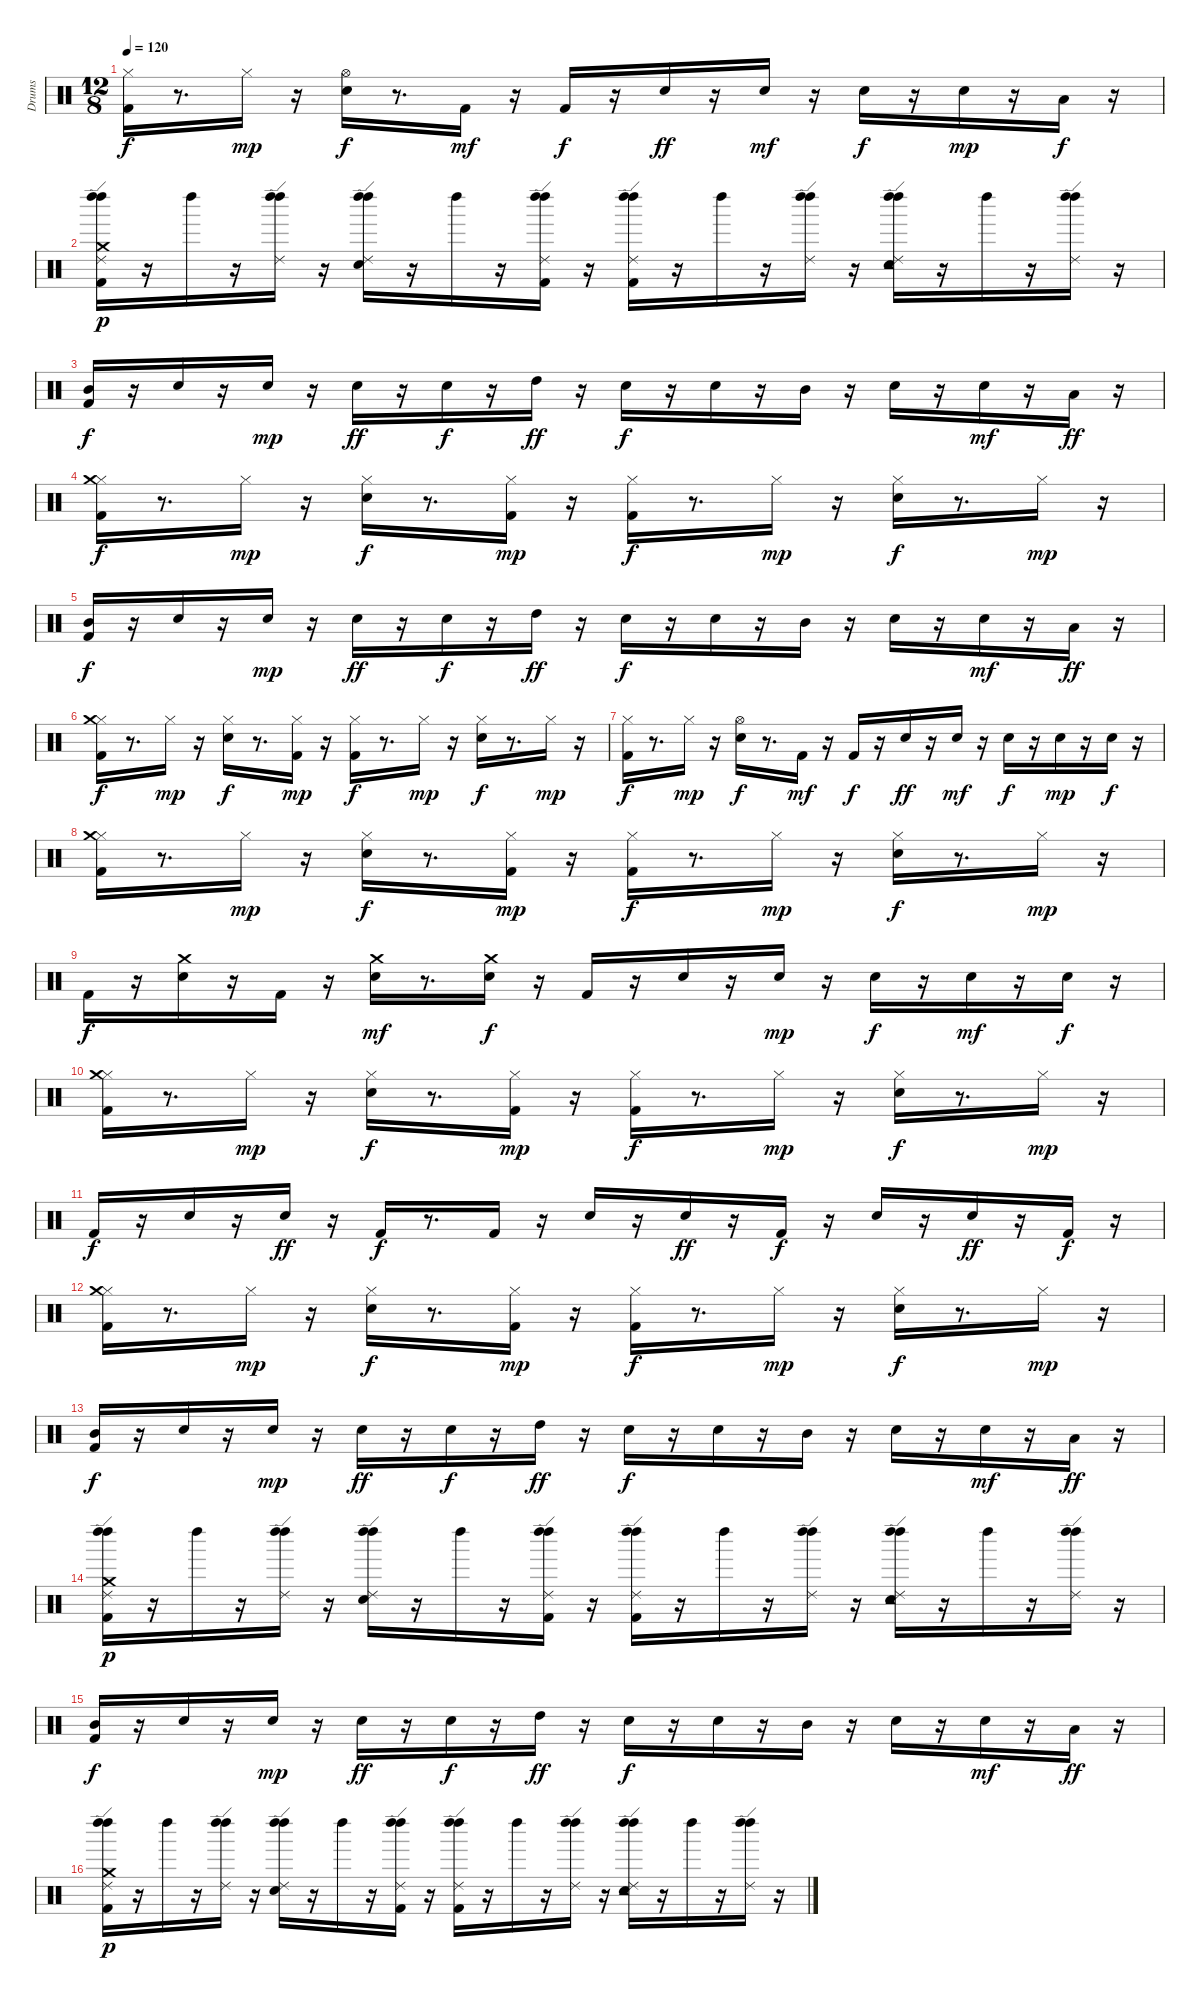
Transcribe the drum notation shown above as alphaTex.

\track ("Drums" "Drums") {instrument percussion}
\staff {score}
\articulation defaults
\ts (12 8)
\tempo 120
\clef neutral
\ks c
("Kick (hit) 2" "Hi-Hat (closed)").16{dy f} r.8{d} "Hi-Hat (closed)".16{dy mp} r.16 ("Snare (hit) 2" "Hi-Hat (open)").16{dy f} r.8{d} "Kick (hit) 2".16{dy mf} r.16 "Kick (hit) 2".16{dy f} r.16 "Snare (hit) 2".16{dy ff} r.16 "Snare (hit) 2".16{dy mf} r.16 "Snare (hit) 2".16{dy f} r.16 "Snare (hit) 2".16{dy mp} r.16 "Low Floor Tom (hit)".16{dy f} r.16 |
("Kick (hit) 2" "Ride (edge) 2" "Crash medium (hit)" "Left Maraca (hit)" "Left Maraca (hit)").16{dy p} r.16 "Left Maraca (hit)".16 r.16 ("Ride (edge) 2" "Left Maraca (hit)" "Left Maraca (hit)").16 r.16 ("Snare (hit) 2" "Ride (edge) 2" "Left Maraca (hit)" "Left Maraca (hit)").16 r.16 "Left Maraca (hit)".16 r.16 ("Kick (hit) 2" "Ride (edge) 2" "Left Maraca (hit)" "Left Maraca (hit)").16 r.16 ("Kick (hit) 2" "Ride (edge) 2" "Left Maraca (hit)" "Left Maraca (hit)").16 r.16 "Left Maraca (hit)".16 r.16 ("Ride (edge) 2" "Left Maraca (hit)" "Left Maraca (hit)").16 r.16 ("Snare (hit) 2" "Ride (edge) 2" "Tambourine (hit)" "Left Maraca (hit)" "Left Maraca (hit)").16 r.16 "Left Maraca (hit)".16 r.16 ("Ride (edge) 2" "Left Maraca (hit)" "Left Maraca (hit)").16 r.16 |
("Kick (hit) 2" "Mid Tom (hit)").16{dy f} r.16 "Snare (hit) 2".16 r.16 "Snare (hit) 2".16{dy mp} r.16 "Snare (hit) 2".16{dy ff} r.16 "Snare (hit) 2".16{dy f} r.16 "High Tom (hit)".16{dy ff} r.16 "Snare (hit) 2".16{dy f} r.16 "Snare (hit) 2".16 r.16 "Mid Tom (hit)".16 r.16 "Snare (hit) 2".16 r.16 "Snare (hit) 2".16{dy mf} r.16 "Low Floor Tom (hit)".16{dy ff} r.16 |
("Kick (hit) 2" "Hi-Hat (closed)" "Crash medium (hit)").16{dy f} r.8{d} "Hi-Hat (closed)".16{dy mp} r.16 ("Snare (hit) 2" "Hi-Hat (closed)").16{dy f} r.8{d} ("Kick (hit) 2" "Hi-Hat (closed)").16{dy mp} r.16 ("Kick (hit) 2" "Hi-Hat (closed)").16{dy f} r.8{d} "Hi-Hat (closed)".16{dy mp} r.16 ("Snare (hit) 2" "Hi-Hat (closed)").16{dy f} r.8{d} "Hi-Hat (closed)".16{dy mp} r.16 |
("Kick (hit) 2" "Mid Tom (hit)").16{dy f} r.16 "Snare (hit) 2".16 r.16 "Snare (hit) 2".16{dy mp} r.16 "Snare (hit) 2".16{dy ff} r.16 "Snare (hit) 2".16{dy f} r.16 "High Tom (hit)".16{dy ff} r.16 "Snare (hit) 2".16{dy f} r.16 "Snare (hit) 2".16 r.16 "Mid Tom (hit)".16 r.16 "Snare (hit) 2".16 r.16 "Snare (hit) 2".16{dy mf} r.16 "Low Floor Tom (hit)".16{dy ff} r.16 |
("Kick (hit) 2" "Hi-Hat (closed)" "Crash medium (hit)").16{dy f} r.8{d} "Hi-Hat (closed)".16{dy mp} r.16 ("Snare (hit) 2" "Hi-Hat (closed)").16{dy f} r.8{d} ("Kick (hit) 2" "Hi-Hat (closed)").16{dy mp} r.16 ("Kick (hit) 2" "Hi-Hat (closed)").16{dy f} r.8{d} "Hi-Hat (closed)".16{dy mp} r.16 ("Snare (hit) 2" "Hi-Hat (closed)").16{dy f} r.8{d} "Hi-Hat (closed)".16{dy mp} r.16 |
("Kick (hit) 2" "Hi-Hat (closed)").16{dy f} r.8{d} "Hi-Hat (closed)".16{dy mp} r.16 ("Snare (hit) 2" "Hi-Hat (open)").16{dy f} r.8{d} "Kick (hit) 2".16{dy mf} r.16 "Kick (hit) 2".16{dy f} r.16 "Snare (hit) 2".16{dy ff} r.16 "Snare (hit) 2".16{dy mf} r.16 "Snare (hit) 2".16{dy f} r.16 "Snare (hit) 2".16{dy mp} r.16 "Snare (hit) 2".16{dy f} r.16 |
("Kick (hit) 2" "Hi-Hat (closed)" "Crash medium (hit)").16 r.8{d} "Hi-Hat (closed)".16{dy mp} r.16 ("Snare (hit) 2" "Hi-Hat (closed)").16{dy f} r.8{d} ("Kick (hit) 2" "Hi-Hat (closed)").16{dy mp} r.16 ("Kick (hit) 2" "Hi-Hat (closed)").16{dy f} r.8{d} "Hi-Hat (closed)".16{dy mp} r.16 ("Snare (hit) 2" "Hi-Hat (closed)").16{dy f} r.8{d} "Hi-Hat (closed)".16{dy mp} r.16 |
"Kick (hit) 2".16{dy f} r.16 ("Snare (hit) 2" "Crash medium (hit)").16 r.16 "Kick (hit) 2".16 r.16 ("Snare (hit) 2" "Crash medium (hit)").16{dy mf} r.8{d} ("Snare (hit) 2" "Crash medium (hit)").16{dy f} r.16 "Kick (hit) 2".16 r.16 "Snare (hit) 2".16 r.16 "Snare (hit) 2".16{dy mp} r.16 "Snare (hit) 2".16{dy f} r.16 "Snare (hit) 2".16{dy mf} r.16 "Snare (hit) 2".16{dy f} r.16 |
("Kick (hit) 2" "Hi-Hat (closed)" "Crash medium (hit)").16 r.8{d} "Hi-Hat (closed)".16{dy mp} r.16 ("Snare (hit) 2" "Hi-Hat (closed)").16{dy f} r.8{d} ("Kick (hit) 2" "Hi-Hat (closed)").16{dy mp} r.16 ("Kick (hit) 2" "Hi-Hat (closed)").16{dy f} r.8{d} "Hi-Hat (closed)".16{dy mp} r.16 ("Snare (hit) 2" "Hi-Hat (closed)").16{dy f} r.8{d} "Hi-Hat (closed)".16{dy mp} r.16 |
"Kick (hit) 2".16{dy f} r.16 "Snare (hit) 2".16 r.16 "Snare (hit) 2".16{dy ff} r.16 "Kick (hit) 2".16{dy f} r.8{d} "Kick (hit) 2".16 r.16 "Snare (hit) 2".16 r.16 "Snare (hit) 2".16{dy ff} r.16 "Kick (hit) 2".16{dy f} r.16 "Snare (hit) 2".16 r.16 "Snare (hit) 2".16{dy ff} r.16 "Kick (hit) 2".16{dy f} r.16 |
("Kick (hit) 2" "Hi-Hat (closed)" "Crash medium (hit)").16 r.8{d} "Hi-Hat (closed)".16{dy mp} r.16 ("Snare (hit) 2" "Hi-Hat (closed)").16{dy f} r.8{d} ("Kick (hit) 2" "Hi-Hat (closed)").16{dy mp} r.16 ("Kick (hit) 2" "Hi-Hat (closed)").16{dy f} r.8{d} "Hi-Hat (closed)".16{dy mp} r.16 ("Snare (hit) 2" "Hi-Hat (closed)").16{dy f} r.8{d} "Hi-Hat (closed)".16{dy mp} r.16 |
("Kick (hit) 2" "Mid Tom (hit)").16{dy f} r.16 "Snare (hit) 2".16 r.16 "Snare (hit) 2".16{dy mp} r.16 "Snare (hit) 2".16{dy ff} r.16 "Snare (hit) 2".16{dy f} r.16 "High Tom (hit)".16{dy ff} r.16 "Snare (hit) 2".16{dy f} r.16 "Snare (hit) 2".16 r.16 "Mid Tom (hit)".16 r.16 "Snare (hit) 2".16 r.16 "Snare (hit) 2".16{dy mf} r.16 "Low Floor Tom (hit)".16{dy ff} r.16 |
("Kick (hit) 2" "Ride (edge) 2" "Crash medium (hit)" "Left Maraca (hit)" "Left Maraca (hit)").16{dy p} r.16 "Left Maraca (hit)".16 r.16 ("Ride (edge) 2" "Left Maraca (hit)" "Left Maraca (hit)").16 r.16 ("Snare (hit) 2" "Ride (edge) 2" "Left Maraca (hit)" "Left Maraca (hit)").16 r.16 "Left Maraca (hit)".16 r.16 ("Kick (hit) 2" "Ride (edge) 2" "Left Maraca (hit)" "Left Maraca (hit)").16 r.16 ("Kick (hit) 2" "Ride (edge) 2" "Left Maraca (hit)" "Left Maraca (hit)").16 r.16 "Left Maraca (hit)".16 r.16 ("Ride (edge) 2" "Left Maraca (hit)" "Left Maraca (hit)").16 r.16 ("Snare (hit) 2" "Ride (edge) 2" "Tambourine (hit)" "Left Maraca (hit)" "Left Maraca (hit)").16 r.16 "Left Maraca (hit)".16 r.16 ("Ride (edge) 2" "Left Maraca (hit)" "Left Maraca (hit)").16 r.16 |
("Kick (hit) 2" "Mid Tom (hit)").16{dy f} r.16 "Snare (hit) 2".16 r.16 "Snare (hit) 2".16{dy mp} r.16 "Snare (hit) 2".16{dy ff} r.16 "Snare (hit) 2".16{dy f} r.16 "High Tom (hit)".16{dy ff} r.16 "Snare (hit) 2".16{dy f} r.16 "Snare (hit) 2".16 r.16 "Mid Tom (hit)".16 r.16 "Snare (hit) 2".16 r.16 "Snare (hit) 2".16{dy mf} r.16 "Low Floor Tom (hit)".16{dy ff} r.16 |
("Kick (hit) 2" "Ride (edge) 2" "Crash medium (hit)" "Left Maraca (hit)" "Left Maraca (hit)").16{dy p} r.16 "Left Maraca (hit)".16 r.16 ("Ride (edge) 2" "Left Maraca (hit)" "Left Maraca (hit)").16 r.16 ("Snare (hit) 2" "Ride (edge) 2" "Left Maraca (hit)" "Left Maraca (hit)").16 r.16 "Left Maraca (hit)".16 r.16 ("Kick (hit) 2" "Ride (edge) 2" "Left Maraca (hit)" "Left Maraca (hit)").16 r.16 ("Kick (hit) 2" "Ride (edge) 2" "Left Maraca (hit)" "Left Maraca (hit)").16 r.16 "Left Maraca (hit)".16 r.16 ("Ride (edge) 2" "Left Maraca (hit)" "Left Maraca (hit)").16 r.16 ("Snare (hit) 2" "Ride (edge) 2" "Tambourine (hit)" "Left Maraca (hit)" "Left Maraca (hit)").16 r.16 "Left Maraca (hit)".16 r.16 ("Ride (edge) 2" "Left Maraca (hit)" "Left Maraca (hit)").16 r.16
